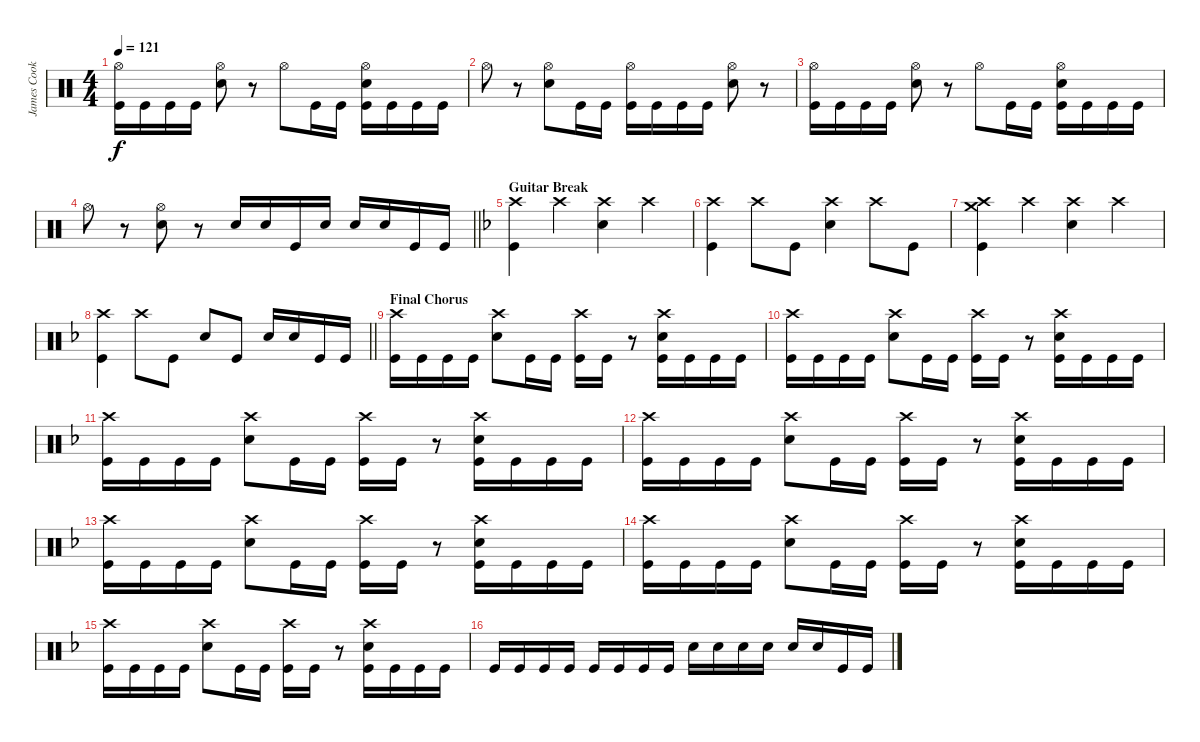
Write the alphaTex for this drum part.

\track ("James Cook" "James Cook") {instrument percussion}
\staff {score}
\articulation defaults
\ts (4 4)
\tempo 121
\clef neutral
\ks c
("Hi-Hat (open)" "Kick (hit)").16{dy f} "Kick (hit)".16 "Kick (hit)".16 "Kick (hit)".16 ("Hi-Hat (open)" "Snare (hit) 2").8 r.8 "Hi-Hat (open)".8 "Kick (hit)".16 "Kick (hit)".16 ("Hi-Hat (open)" "Snare (hit) 2" "Kick (hit)").16 "Kick (hit)".16 "Kick (hit)".16 "Kick (hit)".16 |
"Hi-Hat (open)".8 r.8 ("Hi-Hat (open)" "Snare (hit) 2").8 "Kick (hit)".16 "Kick (hit)".16 ("Hi-Hat (open)" "Kick (hit)").16 "Kick (hit)".16 "Kick (hit)".16 "Kick (hit)".16 ("Hi-Hat (open)" "Snare (hit) 2").8 r.8 |
("Hi-Hat (open)" "Kick (hit)").16 "Kick (hit)".16 "Kick (hit)".16 "Kick (hit)".16 ("Hi-Hat (open)" "Snare (hit) 2").8 r.8 "Hi-Hat (open)".8 "Kick (hit)".16 "Kick (hit)".16 ("Hi-Hat (open)" "Snare (hit) 2" "Kick (hit)").16 "Kick (hit)".16 "Kick (hit)".16 "Kick (hit)".16 |
\barLineRight lightlight "Hi-Hat (open)".8
r.8 ("Hi-Hat (open)" "Snare (hit) 2").8 r.8 "Snare (hit) 2".16 "Snare (hit) 2".16 "Kick (hit)".16 "Snare (hit) 2".16 "Snare (hit) 2".16 "Snare (hit) 2".16 "Kick (hit)".16 "Kick (hit)".16 |
\section ("" "Guitar Break")
\ks f
("Crash high (hit)" "Kick (hit)").4 "Crash high (hit)".4 ("Crash high (hit)" "Snare (hit) 2").4 "Crash high (hit)".4 |
("Crash high (hit)" "Kick (hit)").4 "Crash high (hit)".8 "Kick (hit)".8 ("Crash high (hit)" "Snare (hit) 2").4 "Crash high (hit)".8 "Kick (hit)".8 |
("Crash medium (hit)" "Crash high (hit)" "Kick (hit)").4 "Crash high (hit)".4 ("Crash high (hit)" "Snare (hit) 2").4 "Crash high (hit)".4 |
\barLineRight lightlight
("Crash high (hit)" "Kick (hit)").4 "Crash high (hit)".8 "Kick (hit)".8 "Snare (hit) 2".8 "Kick (hit)".8 "Snare (hit) 2".16 "Snare (hit) 2".16 "Kick (hit)".16 "Kick (hit)".16 |
\section ("" "Final Chorus")
("Crash high (hit)" "Kick (hit)").16 "Kick (hit)".16 "Kick (hit)".16 "Kick (hit)".16 ("Crash high (hit)" "Snare (hit) 2").8 "Kick (hit)".16 "Kick (hit)".16 ("Crash high (hit)" "Kick (hit)").16 "Kick (hit)".16 r.8 ("Crash high (hit)" "Snare (hit) 2" "Kick (hit)").16 "Kick (hit)".16 "Kick (hit)".16 "Kick (hit)".16 |
("Crash high (hit)" "Kick (hit)").16 "Kick (hit)".16 "Kick (hit)".16 "Kick (hit)".16 ("Crash high (hit)" "Snare (hit) 2").8 "Kick (hit)".16 "Kick (hit)".16 ("Crash high (hit)" "Kick (hit)").16 "Kick (hit)".16 r.8 ("Crash high (hit)" "Snare (hit) 2" "Kick (hit)").16 "Kick (hit)".16 "Kick (hit)".16 "Kick (hit)".16 |
("Crash high (hit)" "Kick (hit)").16 "Kick (hit)".16 "Kick (hit)".16 "Kick (hit)".16 ("Crash high (hit)" "Snare (hit) 2").8 "Kick (hit)".16 "Kick (hit)".16 ("Crash high (hit)" "Kick (hit)").16 "Kick (hit)".16 r.8 ("Crash high (hit)" "Snare (hit) 2" "Kick (hit)").16 "Kick (hit)".16 "Kick (hit)".16 "Kick (hit)".16 |
("Crash high (hit)" "Kick (hit)").16 "Kick (hit)".16 "Kick (hit)".16 "Kick (hit)".16 ("Crash high (hit)" "Snare (hit) 2").8 "Kick (hit)".16 "Kick (hit)".16 ("Crash high (hit)" "Kick (hit)").16 "Kick (hit)".16 r.8 ("Crash high (hit)" "Snare (hit) 2" "Kick (hit)").16 "Kick (hit)".16 "Kick (hit)".16 "Kick (hit)".16 |
("Crash high (hit)" "Kick (hit)").16 "Kick (hit)".16 "Kick (hit)".16 "Kick (hit)".16 ("Crash high (hit)" "Snare (hit) 2").8 "Kick (hit)".16 "Kick (hit)".16 ("Crash high (hit)" "Kick (hit)").16 "Kick (hit)".16 r.8 ("Crash high (hit)" "Snare (hit) 2" "Kick (hit)").16 "Kick (hit)".16 "Kick (hit)".16 "Kick (hit)".16 |
("Crash high (hit)" "Kick (hit)").16 "Kick (hit)".16 "Kick (hit)".16 "Kick (hit)".16 ("Crash high (hit)" "Snare (hit) 2").8 "Kick (hit)".16 "Kick (hit)".16 ("Crash high (hit)" "Kick (hit)").16 "Kick (hit)".16 r.8 ("Crash high (hit)" "Snare (hit) 2" "Kick (hit)").16 "Kick (hit)".16 "Kick (hit)".16 "Kick (hit)".16 |
("Crash high (hit)" "Kick (hit)").16 "Kick (hit)".16 "Kick (hit)".16 "Kick (hit)".16 ("Crash high (hit)" "Snare (hit) 2").8 "Kick (hit)".16 "Kick (hit)".16 ("Crash high (hit)" "Kick (hit)").16 "Kick (hit)".16 r.8 ("Crash high (hit)" "Snare (hit) 2" "Kick (hit)").16 "Kick (hit)".16 "Kick (hit)".16 "Kick (hit)".16 |
"Kick (hit)".16 "Kick (hit)".16 "Kick (hit)".16 "Kick (hit)".16 "Kick (hit)".16 "Kick (hit)".16 "Kick (hit)".16 "Kick (hit)".16 "Snare (hit) 2".16 "Snare (hit) 2".16 "Snare (hit) 2".16 "Snare (hit) 2".16 "Snare (hit) 2".16 "Snare (hit) 2".16 "Kick (hit)".16 "Kick (hit)".16
